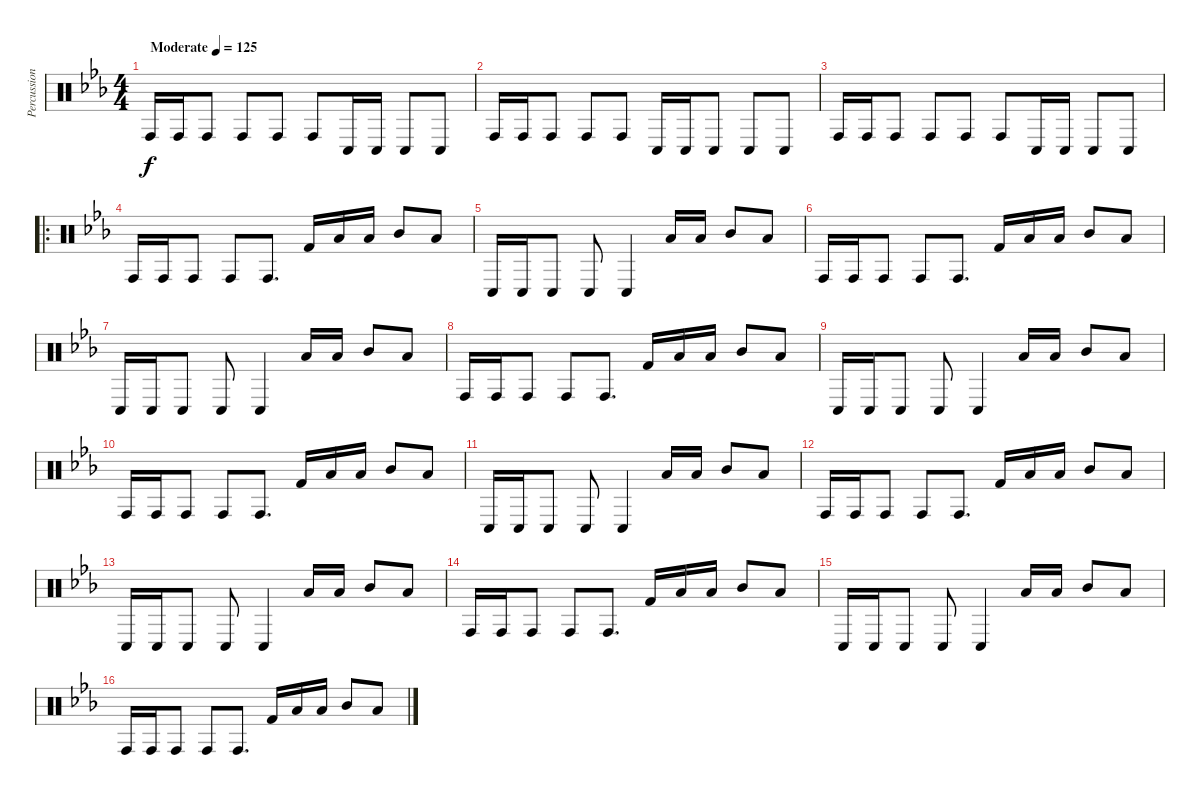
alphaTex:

\track ("Percussion" "Percussion") {instrument percussion}
\staff {score}
\articulation defaults
\ts (4 4)
\tempo (125 "Moderate")
\clef neutral
\ks cminor "Conga high (hit)".16{dy f volume 9} "Conga high (hit)".16 "Conga high (hit)".8 "Conga high (hit)".8 "Conga high (hit)".8 "Conga high (hit)".8 "Conga low (hit)".16 "Conga low (hit)".16 "Conga low (hit)".8 "Conga low (hit)".8
|
"Conga high (hit)".16 "Conga high (hit)".16 "Conga high (hit)".8 "Conga high (hit)".8 "Conga high (hit)".8 "Conga low (hit)".16 "Conga low (hit)".16 "Conga low (hit)".8 "Conga low (hit)".8 "Conga low (hit)".8 |
"Conga high (hit)".16{volume 10} "Conga high (hit)".16 "Conga high (hit)".8 "Conga high (hit)".8 "Conga high (hit)".8 "Conga high (hit)".8 "Conga low (hit)".16 "Conga low (hit)".16 "Conga low (hit)".8 "Conga low (hit)".8 |
\ro "Conga high (hit)".16 "Conga high (hit)".16 "Conga high (hit)".8 "Conga high (hit)".8 "Conga high (hit)".8{d} "Kick (hit) 2".16 "Low Tom (hit)".16 "Low Tom (hit)".16 "Mid Tom (hit)".8 "Low Tom (hit)".8
|
"Conga low (hit)".16 "Conga low (hit)".16 "Conga low (hit)".8 "Conga low (hit)".8 "Conga low (hit)".4 "Low Tom (hit)".16 "Low Tom (hit)".16 "Mid Tom (hit)".8 "Low Tom (hit)".8 |
"Conga high (hit)".16 "Conga high (hit)".16 "Conga high (hit)".8 "Conga high (hit)".8 "Conga high (hit)".8{d} "Kick (hit) 2".16 "Low Tom (hit)".16 "Low Tom (hit)".16 "Mid Tom (hit)".8 "Low Tom (hit)".8 |
"Conga low (hit)".16 "Conga low (hit)".16 "Conga low (hit)".8 "Conga low (hit)".8 "Conga low (hit)".4 "Low Tom (hit)".16 "Low Tom (hit)".16 "Mid Tom (hit)".8 "Low Tom (hit)".8 |
"Conga high (hit)".16 "Conga high (hit)".16 "Conga high (hit)".8 "Conga high (hit)".8 "Conga high (hit)".8{d} "Kick (hit) 2".16 "Low Tom (hit)".16 "Low Tom (hit)".16 "Mid Tom (hit)".8 "Low Tom (hit)".8 |
"Conga low (hit)".16 "Conga low (hit)".16 "Conga low (hit)".8 "Conga low (hit)".8 "Conga low (hit)".4 "Low Tom (hit)".16 "Low Tom (hit)".16 "Mid Tom (hit)".8 "Low Tom (hit)".8 |
"Conga high (hit)".16 "Conga high (hit)".16 "Conga high (hit)".8 "Conga high (hit)".8 "Conga high (hit)".8{d} "Kick (hit) 2".16 "Low Tom (hit)".16 "Low Tom (hit)".16 "Mid Tom (hit)".8 "Low Tom (hit)".8 |
"Conga low (hit)".16 "Conga low (hit)".16 "Conga low (hit)".8 "Conga low (hit)".8 "Conga low (hit)".4 "Low Tom (hit)".16 "Low Tom (hit)".16 "Mid Tom (hit)".8 "Low Tom (hit)".8 |
"Conga high (hit)".16 "Conga high (hit)".16 "Conga high (hit)".8 "Conga high (hit)".8 "Conga high (hit)".8{d} "Kick (hit) 2".16 "Low Tom (hit)".16 "Low Tom (hit)".16 "Mid Tom (hit)".8 "Low Tom (hit)".8 |
"Conga low (hit)".16 "Conga low (hit)".16 "Conga low (hit)".8 "Conga low (hit)".8 "Conga low (hit)".4 "Low Tom (hit)".16 "Low Tom (hit)".16 "Mid Tom (hit)".8 "Low Tom (hit)".8 |
"Conga high (hit)".16 "Conga high (hit)".16 "Conga high (hit)".8 "Conga high (hit)".8 "Conga high (hit)".8{d} "Kick (hit) 2".16 "Low Tom (hit)".16 "Low Tom (hit)".16 "Mid Tom (hit)".8 "Low Tom (hit)".8 |
"Conga low (hit)".16 "Conga low (hit)".16 "Conga low (hit)".8 "Conga low (hit)".8 "Conga low (hit)".4 "Low Tom (hit)".16 "Low Tom (hit)".16 "Mid Tom (hit)".8 "Low Tom (hit)".8 |
"Conga high (hit)".16 "Conga high (hit)".16 "Conga high (hit)".8 "Conga high (hit)".8 "Conga high (hit)".8{d} "Kick (hit) 2".16 "Low Tom (hit)".16 "Low Tom (hit)".16 "Mid Tom (hit)".8 "Low Tom (hit)".8
